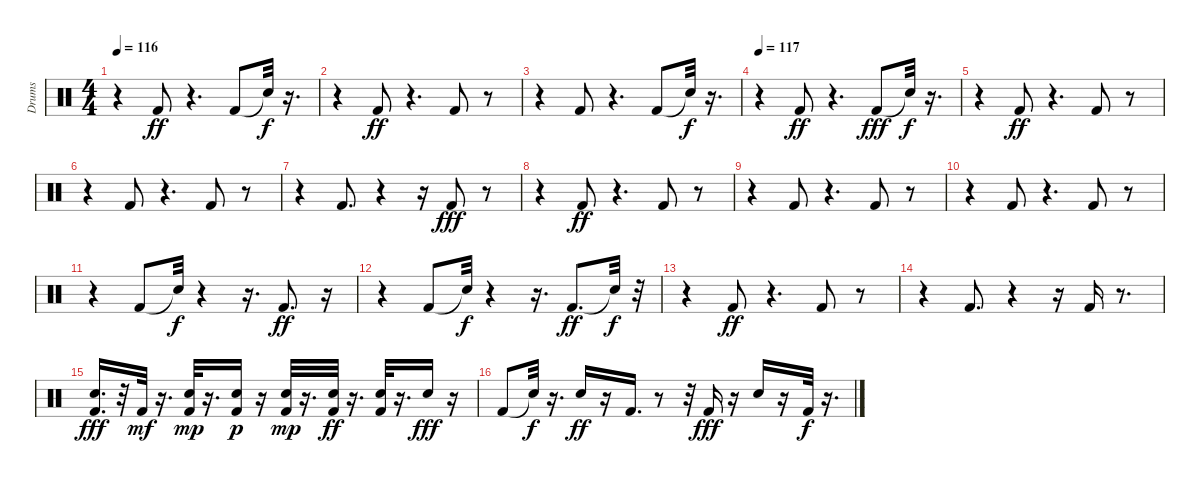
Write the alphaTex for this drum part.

\track ("Drums" "Drums") {instrument percussion}
\staff {score}
\articulation defaults
\ts (4 4)
\tempo 116
\clef neutral
\ks c
r.4{dy ff} "Kick (hit) 2".8 r.4{d} "Kick (hit) 2".8 "Snare (hit)"{t}.32{dy f} r.16{d} |
r.4 "Kick (hit) 2".8{dy ff} r.4{d} "Kick (hit) 2".8 r.8 |
r.4 "Kick (hit) 2".8 r.4{d} "Kick (hit) 2".8 "Snare (hit)"{t}.32{dy f} r.16{d} |
\tempo 117
r.4 "Kick (hit) 2".8{dy ff} r.4{d} "Kick (hit) 2".8{dy fff} "Snare (hit)"{t}.32{dy f} r.16{d} |
r.4 "Kick (hit) 2".8{dy ff} r.4{d} "Kick (hit) 2".8 r.8 |
r.4 "Kick (hit) 2".8 r.4{d} "Kick (hit) 2".8 r.8 |
r.4 "Kick (hit) 2".8{d} r.4 r.16 "Kick (hit) 2".8{dy fff} r.8 |
r.4 "Kick (hit) 2".8{dy ff} r.4{d} "Kick (hit) 2".8 r.8 |
r.4 "Kick (hit) 2".8 r.4{d} "Kick (hit) 2".8 r.8 |
r.4 "Kick (hit) 2".8 r.4{d} "Kick (hit) 2".8 r.8 |
r.4 "Kick (hit) 2".8 "Snare (hit)"{t}.32{dy f} r.4 r.16{d} "Kick (hit) 2".8{d dy ff} r.16 |
r.4 "Kick (hit) 2".8 "Snare (hit)"{t}.32{dy f} r.4 r.16{d} "Kick (hit) 2".8{d dy ff} "Snare (hit)"{t}.32{dy f} r.32 |
r.4 "Kick (hit) 2".8{dy ff} r.4{d} "Kick (hit) 2".8 r.8 |
r.4 "Kick (hit) 2".8{d} r.4 r.16 "Kick (hit) 2".16 r.8{d} |
("Kick (hit) 2" "Snare (hit) 2").16{d dy fff} r.32 "Kick (hit) 2".32{dy mf} r.16{d} ("Kick (hit) 2" "Snare (hit) 2").32{dy mp} r.16{d} ("Kick (hit) 2" "Snare (hit) 2").16{dy p} r.16 ("Kick (hit) 2" "Snare (hit) 2").32{dy mp} r.16{d} ("Kick (hit) 2" "Snare (hit) 2").32{dy ff} r.16{d} ("Kick (hit) 2" "Snare (hit) 2").32 r.16{d} "Snare (hit) 2".16{dy fff} r.16 |
"Kick (hit) 2".8 "Snare (hit)"{t}.32{dy f} r.16{d} "Snare (hit) 2".16{dy ff} r.16 "Kick (hit) 2".16{d} r.8 r.32 "Kick (hit) 2".16{dy fff} r.16 "Snare (hit) 2".16 r.16 "Kick (hit) 2".32{dy f} r.16{d}
